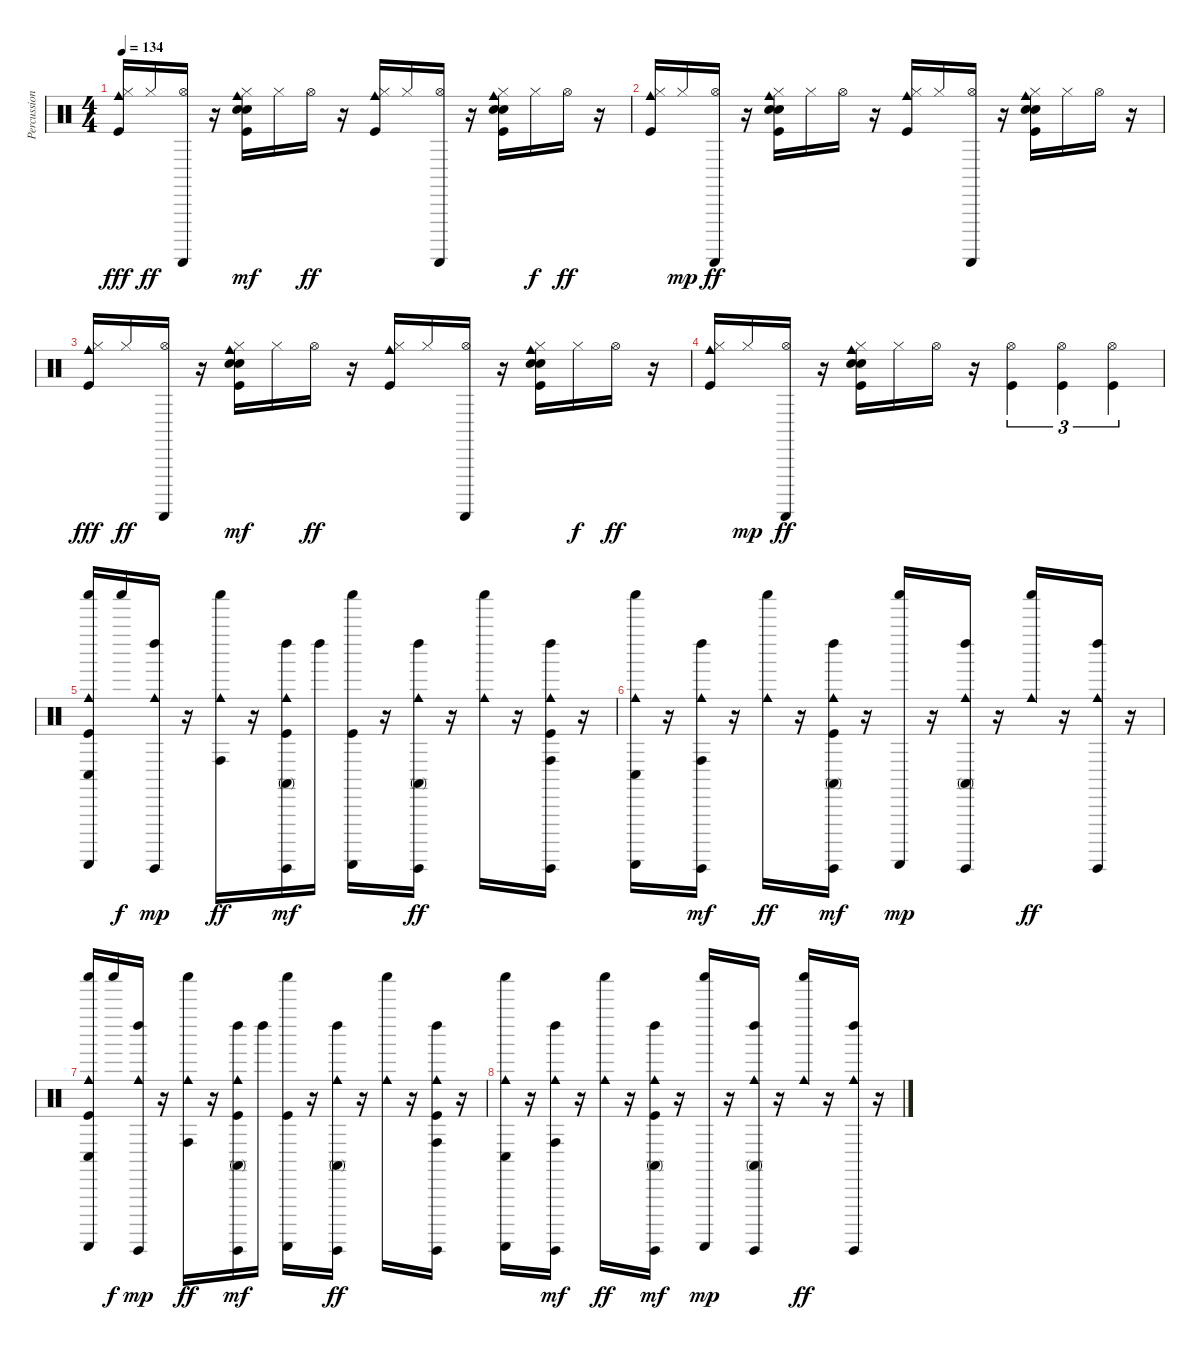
\track ("Percussion" "Percussion") {instrument percussion}
\staff {score}
\articulation defaults
\ts (4 4)
\tempo 134
\clef neutral
\ks c
("Kick (hit)" "Hi-Hat (closed)" "Cowbell medium (hit)").16{dy fff} "Hi-Hat (closed)".16{dy ff} ("Hi-Hat (open)" "Guiro (scrap-return)").16 r.16 ("Kick (hit)" "Hand Clap (hit)" "Electric Snare (hit)" "Hi-Hat (closed)" "Cowbell medium (hit)").16{dy mf} "Hi-Hat (closed)".16 "Hi-Hat (open)".16{dy ff} r.16 ("Kick (hit)" "Hi-Hat (closed)" "Cowbell medium (hit)").16 "Hi-Hat (closed)".16 ("Hi-Hat (open)" "Guiro (scrap-return)").16 r.16 ("Kick (hit)" "Hand Clap (hit)" "Electric Snare (hit)" "Hi-Hat (closed)" "Cowbell medium (hit)").16 "Hi-Hat (closed)".16{dy f} "Hi-Hat (open)".16{dy ff} r.16 |
("Kick (hit)" "Hi-Hat (closed)" "Cowbell medium (hit)").16 "Hi-Hat (closed)".16{dy mp} ("Hi-Hat (open)" "Guiro (scrap-return)").16{dy ff} r.16 ("Kick (hit)" "Hand Clap (hit)" "Electric Snare (hit)" "Hi-Hat (closed)" "Cowbell medium (hit)").16 "Hi-Hat (closed)".16 "Hi-Hat (open)".16 r.16 ("Kick (hit)" "Hi-Hat (closed)" "Cowbell medium (hit)").16 "Hi-Hat (closed)".16 ("Hi-Hat (open)" "Guiro (scrap-return)").16 r.16 ("Kick (hit)" "Hand Clap (hit)" "Electric Snare (hit)" "Hi-Hat (closed)" "Cowbell medium (hit)").16 "Hi-Hat (closed)".16 "Hi-Hat (open)".16 r.16 |
("Kick (hit)" "Hi-Hat (closed)" "Cowbell medium (hit)").16{dy fff} "Hi-Hat (closed)".16{dy ff} ("Hi-Hat (open)" "Guiro (scrap-return)").16 r.16 ("Kick (hit)" "Hand Clap (hit)" "Electric Snare (hit)" "Hi-Hat (closed)" "Cowbell medium (hit)").16{dy mf} "Hi-Hat (closed)".16 "Hi-Hat (open)".16{dy ff} r.16 ("Kick (hit)" "Hi-Hat (closed)" "Cowbell medium (hit)").16 "Hi-Hat (closed)".16 ("Hi-Hat (open)" "Guiro (scrap-return)").16 r.16 ("Kick (hit)" "Hand Clap (hit)" "Electric Snare (hit)" "Hi-Hat (closed)" "Cowbell medium (hit)").16 "Hi-Hat (closed)".16{dy f} "Hi-Hat (open)".16{dy ff} r.16 |
("Kick (hit)" "Hi-Hat (closed)" "Cowbell medium (hit)").16 "Hi-Hat (closed)".16{dy mp} ("Hi-Hat (open)" "Guiro (scrap-return)").16{dy ff} r.16 ("Kick (hit)" "Hand Clap (hit)" "Electric Snare (hit)" "Hi-Hat (closed)" "Cowbell medium (hit)").16 "Hi-Hat (closed)".16 "Hi-Hat (open)".16 r.16 ("Kick (hit)" "Hi-Hat (open)").4{tu (3 2)} ("Kick (hit)" "Hi-Hat (open)").4{tu (3 2)} ("Kick (hit)" "Hi-Hat (open)").4{tu (3 2)} |
("Kick (hit)" "Cowbell medium (hit)" "Conga low (hit)" "Guiro (scrap-return)" "Shaker (hit)").16 "Shaker (hit)".16{dy f} ("Cowbell medium (hit)" "Left Maraca (hit)" "Guiro (hit)").16{dy mp} r.16 ("Cowbell medium (hit)" "Conga high (hit)" "Shaker (hit)").16{dy ff} r.16 ("Kick (hit)" "Cowbell medium (hit)" "Conga high (mute)" "Left Maraca (hit)" "Guiro (hit)").16{dy mf} "Left Maraca (hit)".16 ("Kick (hit)" "Guiro (scrap-return)" "Shaker (hit)").16 r.16 ("Cowbell medium (hit)" "Conga high (mute)" "Left Maraca (hit)" "Guiro (hit)").16{dy ff} r.16 ("Cowbell medium (hit)" "Shaker (hit)").16 r.16 ("Kick (hit)" "Cowbell medium (hit)" "Conga high (hit)" "Left Maraca (hit)" "Guiro (hit)").16 r.16 |
("Cowbell medium (hit)" "Conga low (hit)" "Guiro (scrap-return)" "Shaker (hit)").16 r.16 ("Cowbell medium (hit)" "Conga high (hit)" "Left Maraca (hit)" "Guiro (hit)").16{dy mf} r.16 ("Cowbell medium (hit)" "Shaker (hit)").16{dy ff} r.16 ("Kick (hit)" "Cowbell medium (hit)" "Conga high (mute)" "Left Maraca (hit)" "Guiro (hit)").16{dy mf} r.16 ("Guiro (scrap-return)" "Shaker (hit)").16{dy mp} r.16 ("Cowbell medium (hit)" "Conga high (mute)" "Left Maraca (hit)" "Guiro (hit)").16 r.16 ("Cowbell medium (hit)" "Shaker (hit)").16{dy ff} r.16 ("Cowbell medium (hit)" "Left Maraca (hit)" "Guiro (hit)").16 r.16 |
("Kick (hit)" "Cowbell medium (hit)" "Conga low (hit)" "Guiro (scrap-return)" "Shaker (hit)").16 "Shaker (hit)".16{dy f} ("Cowbell medium (hit)" "Left Maraca (hit)" "Guiro (hit)").16{dy mp} r.16 ("Cowbell medium (hit)" "Conga high (hit)" "Shaker (hit)").16{dy ff} r.16 ("Kick (hit)" "Cowbell medium (hit)" "Conga high (mute)" "Left Maraca (hit)" "Guiro (hit)").16{dy mf} "Left Maraca (hit)".16 ("Kick (hit)" "Guiro (scrap-return)" "Shaker (hit)").16 r.16 ("Cowbell medium (hit)" "Conga high (mute)" "Left Maraca (hit)" "Guiro (hit)").16{dy ff} r.16 ("Cowbell medium (hit)" "Shaker (hit)").16 r.16 ("Kick (hit)" "Cowbell medium (hit)" "Conga high (hit)" "Left Maraca (hit)" "Guiro (hit)").16 r.16 |
("Cowbell medium (hit)" "Conga low (hit)" "Guiro (scrap-return)" "Shaker (hit)").16 r.16 ("Cowbell medium (hit)" "Conga high (hit)" "Left Maraca (hit)" "Guiro (hit)").16{dy mf} r.16 ("Cowbell medium (hit)" "Shaker (hit)").16{dy ff} r.16 ("Kick (hit)" "Cowbell medium (hit)" "Conga high (mute)" "Left Maraca (hit)" "Guiro (hit)").16{dy mf} r.16 ("Guiro (scrap-return)" "Shaker (hit)").16{dy mp} r.16 ("Cowbell medium (hit)" "Conga high (mute)" "Left Maraca (hit)" "Guiro (hit)").16 r.16 ("Cowbell medium (hit)" "Shaker (hit)").16{dy ff} r.16 ("Cowbell medium (hit)" "Left Maraca (hit)" "Guiro (hit)").16 r.16
